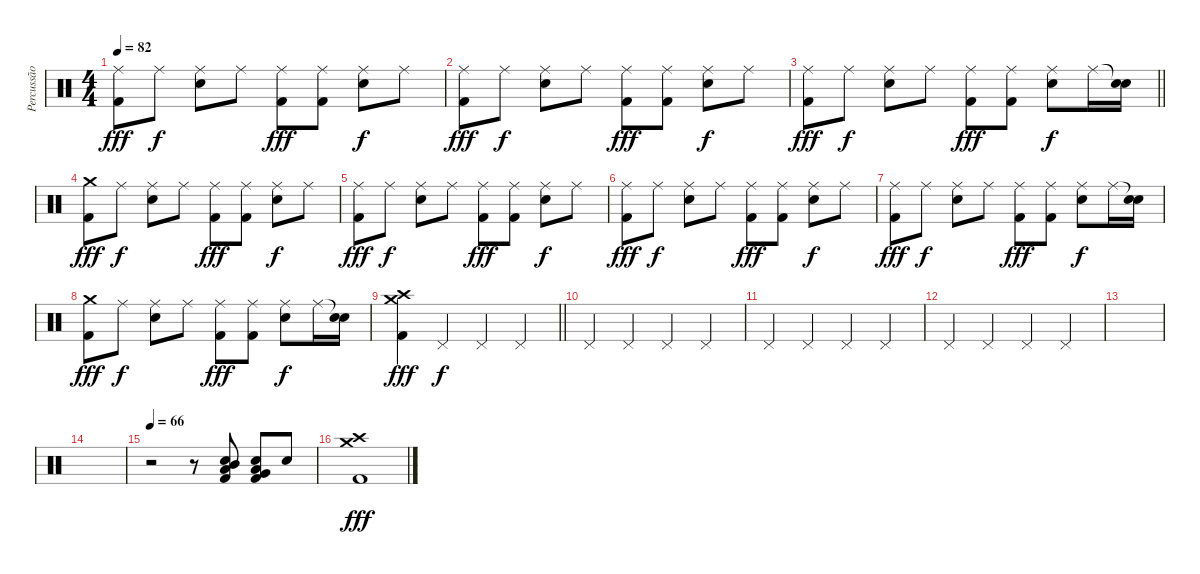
\track ("Percussão" "Percussão") {instrument percussion}
\staff {score}
\articulation defaults
\ts (4 4)
\tempo 82
\clef neutral
\ks c
("Ride (middle)" "Kick (hit) 2").8{dy fff} "Ride (middle)".8{dy f} ("Ride (middle)" "Snare (hit) 2").8 "Ride (middle)".8 ("Ride (middle)" "Kick (hit) 2").8{dy fff} ("Ride (middle)" "Kick (hit) 2").8 ("Ride (middle)" "Snare (hit) 2").8{dy f} "Ride (middle)".8 |
("Ride (middle)" "Kick (hit) 2").8{dy fff} "Ride (middle)".8{dy f} ("Ride (middle)" "Snare (hit) 2").8 "Ride (middle)".8 ("Ride (middle)" "Kick (hit) 2").8{dy fff} ("Ride (middle)" "Kick (hit) 2").8 ("Ride (middle)" "Snare (hit) 2").8{dy f} "Ride (middle)".8 |
\barLineRight lightlight
("Ride (middle)" "Kick (hit) 2").8{dy fff} "Ride (middle)".8{dy f} ("Ride (middle)" "Snare (hit) 2").8 "Ride (middle)".8 ("Ride (middle)" "Kick (hit) 2").8{dy fff} ("Ride (middle)" "Kick (hit) 2").8 ("Ride (middle)" "Snare (hit) 2").8{dy f} "Ride (middle)".16 ("Snare (hit)"{t} "Snare (hit) 2").16 |
("Crash medium (hit)" "Kick (hit) 2").8{dy fff} "Ride (middle)".8{dy f} ("Ride (middle)" "Snare (hit) 2").8 "Ride (middle)".8 ("Ride (middle)" "Kick (hit) 2").8{dy fff} ("Ride (middle)" "Kick (hit) 2").8 ("Ride (middle)" "Snare (hit) 2").8{dy f} "Ride (middle)".8 |
("Ride (middle)" "Kick (hit) 2").8{dy fff} "Ride (middle)".8{dy f} ("Ride (middle)" "Snare (hit) 2").8 "Ride (middle)".8 ("Ride (middle)" "Kick (hit) 2").8{dy fff} ("Ride (middle)" "Kick (hit) 2").8 ("Ride (middle)" "Snare (hit) 2").8{dy f} "Ride (middle)".8 |
("Ride (middle)" "Kick (hit) 2").8{dy fff} "Ride (middle)".8{dy f} ("Ride (middle)" "Snare (hit) 2").8 "Ride (middle)".8 ("Ride (middle)" "Kick (hit) 2").8{dy fff} ("Ride (middle)" "Kick (hit) 2").8 ("Ride (middle)" "Snare (hit) 2").8{dy f} "Ride (middle)".8 |
("Ride (middle)" "Kick (hit) 2").8{dy fff} "Ride (middle)".8{dy f} ("Ride (middle)" "Snare (hit) 2").8 "Ride (middle)".8 ("Ride (middle)" "Kick (hit) 2").8{dy fff} ("Ride (middle)" "Kick (hit) 2").8 ("Ride (middle)" "Snare (hit) 2").8{dy f} "Ride (middle)".16 ("Snare (hit)"{t} "Snare (hit) 2").16 |
("Crash medium (hit)" "Kick (hit) 2").8{dy fff} "Ride (middle)".8{dy f} ("Ride (middle)" "Snare (hit) 2").8 "Ride (middle)".8 ("Ride (middle)" "Kick (hit) 2").8{dy fff} ("Ride (middle)" "Kick (hit) 2").8 ("Ride (middle)" "Snare (hit) 2").8{dy f} "Ride (middle)".16 ("Snare (hit)"{t} "Snare (hit) 2").16 |
\barLineRight lightlight
("Crash medium (hit)" "Crash high (hit)" "Kick (hit) 2").4{dy fff} "Pedal Hi-Hat (hit)".4{dy f} "Pedal Hi-Hat (hit)".4 "Pedal Hi-Hat (hit)".4 |
"Pedal Hi-Hat (hit)".4 "Pedal Hi-Hat (hit)".4 "Pedal Hi-Hat (hit)".4 "Pedal Hi-Hat (hit)".4 |
"Pedal Hi-Hat (hit)".4 "Pedal Hi-Hat (hit)".4 "Pedal Hi-Hat (hit)".4 "Pedal Hi-Hat (hit)".4 |
"Pedal Hi-Hat (hit)".4 "Pedal Hi-Hat (hit)".4 "Pedal Hi-Hat (hit)".4 "Pedal Hi-Hat (hit)".4 |
|
|
\tempo 66
r.2 r.8 ("Kick (hit) 2" "Mid Tom (hit)" "Low Floor Tom (hit)" "Snare (hit) 2").8 ("Low Tom (hit)" "Very Low Tom (hit)" "Snare (hit) 2" "Kick (hit) 2").8 "Electric Snare (hit)".8 |
("Crash medium (hit)" "Crash high (hit)" "Kick (hit) 2").1{dy fff}
